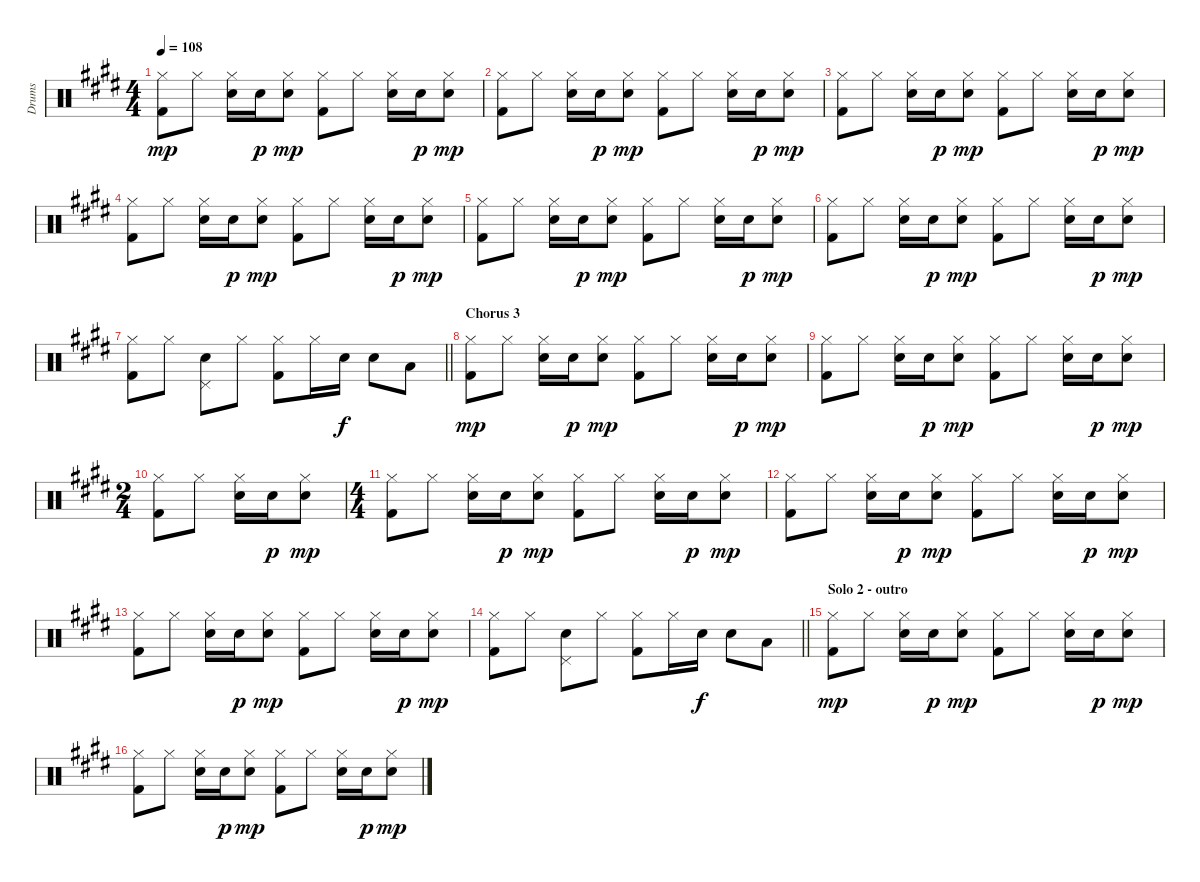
\track ("Drums" "Drums") {instrument percussion bank 7}
\staff {score}
\articulation defaults
\ts (4 4)
\tempo 108
\clef neutral
\ks e
("Hi-Hat (closed)" "Kick (hit) 2").8{dy mp} "Hi-Hat (closed)".8 ("Electric Snare (hit)" "Hi-Hat (closed)").16 "Electric Snare (hit)".16{dy p} ("Electric Snare (hit)" "Hi-Hat (closed)").8{dy mp} ("Hi-Hat (closed)" "Kick (hit) 2").8 "Hi-Hat (closed)".8 ("Electric Snare (hit)" "Hi-Hat (closed)").16 "Electric Snare (hit)".16{dy p} ("Electric Snare (hit)" "Hi-Hat (closed)").8{dy mp} |
("Hi-Hat (closed)" "Kick (hit) 2").8 "Hi-Hat (closed)".8 ("Electric Snare (hit)" "Hi-Hat (closed)").16 "Electric Snare (hit)".16{dy p} ("Electric Snare (hit)" "Hi-Hat (closed)").8{dy mp} ("Hi-Hat (closed)" "Kick (hit) 2").8 "Hi-Hat (closed)".8 ("Electric Snare (hit)" "Hi-Hat (closed)").16 "Electric Snare (hit)".16{dy p} ("Electric Snare (hit)" "Hi-Hat (closed)").8{dy mp} |
("Hi-Hat (closed)" "Kick (hit) 2").8 "Hi-Hat (closed)".8 ("Electric Snare (hit)" "Hi-Hat (closed)").16 "Electric Snare (hit)".16{dy p} ("Electric Snare (hit)" "Hi-Hat (closed)").8{dy mp} ("Hi-Hat (closed)" "Kick (hit) 2").8 "Hi-Hat (closed)".8 ("Electric Snare (hit)" "Hi-Hat (closed)").16 "Electric Snare (hit)".16{dy p} ("Electric Snare (hit)" "Hi-Hat (closed)").8{dy mp} |
("Hi-Hat (closed)" "Kick (hit) 2").8 "Hi-Hat (closed)".8 ("Electric Snare (hit)" "Hi-Hat (closed)").16 "Electric Snare (hit)".16{dy p} ("Electric Snare (hit)" "Hi-Hat (closed)").8{dy mp} ("Hi-Hat (closed)" "Kick (hit) 2").8 "Hi-Hat (closed)".8 ("Electric Snare (hit)" "Hi-Hat (closed)").16 "Electric Snare (hit)".16{dy p} ("Electric Snare (hit)" "Hi-Hat (closed)").8{dy mp} |
("Hi-Hat (closed)" "Kick (hit) 2").8 "Hi-Hat (closed)".8 ("Electric Snare (hit)" "Hi-Hat (closed)").16 "Electric Snare (hit)".16{dy p} ("Electric Snare (hit)" "Hi-Hat (closed)").8{dy mp} ("Hi-Hat (closed)" "Kick (hit) 2").8 "Hi-Hat (closed)".8 ("Electric Snare (hit)" "Hi-Hat (closed)").16 "Electric Snare (hit)".16{dy p} ("Electric Snare (hit)" "Hi-Hat (closed)").8{dy mp} |
("Hi-Hat (closed)" "Kick (hit) 2").8 "Hi-Hat (closed)".8 ("Electric Snare (hit)" "Hi-Hat (closed)").16 "Electric Snare (hit)".16{dy p} ("Electric Snare (hit)" "Hi-Hat (closed)").8{dy mp} ("Hi-Hat (closed)" "Kick (hit) 2").8 "Hi-Hat (closed)".8 ("Electric Snare (hit)" "Hi-Hat (closed)").16 "Electric Snare (hit)".16{dy p} ("Electric Snare (hit)" "Hi-Hat (closed)").8{dy mp} |
\barLineRight lightlight
("Hi-Hat (closed)" "Kick (hit) 2").8 "Hi-Hat (closed)".8 ("Electric Snare (hit)" "Pedal Hi-Hat (hit)").8 "Hi-Hat (closed)".8 ("Hi-Hat (closed)" "Kick (hit) 2").8 "Hi-Hat (closed)".16 "Electric Snare (hit)".16{dy f} "Electric Snare (hit)".8 "Low Tom (hit)".8 |
\section ("" "Chorus 3")
("Hi-Hat (closed)" "Kick (hit) 2").8{dy mp} "Hi-Hat (closed)".8 ("Electric Snare (hit)" "Hi-Hat (closed)").16 "Electric Snare (hit)".16{dy p} ("Electric Snare (hit)" "Hi-Hat (closed)").8{dy mp} ("Hi-Hat (closed)" "Kick (hit) 2").8 "Hi-Hat (closed)".8 ("Electric Snare (hit)" "Hi-Hat (closed)").16 "Electric Snare (hit)".16{dy p} ("Electric Snare (hit)" "Hi-Hat (closed)").8{dy mp} |
("Hi-Hat (closed)" "Kick (hit) 2").8 "Hi-Hat (closed)".8 ("Electric Snare (hit)" "Hi-Hat (closed)").16 "Electric Snare (hit)".16{dy p} ("Electric Snare (hit)" "Hi-Hat (closed)").8{dy mp} ("Hi-Hat (closed)" "Kick (hit) 2").8 "Hi-Hat (closed)".8 ("Electric Snare (hit)" "Hi-Hat (closed)").16 "Electric Snare (hit)".16{dy p} ("Electric Snare (hit)" "Hi-Hat (closed)").8{dy mp} |
\ts (2 4)
("Hi-Hat (closed)" "Kick (hit) 2").8 "Hi-Hat (closed)".8 ("Electric Snare (hit)" "Hi-Hat (closed)").16 "Electric Snare (hit)".16{dy p} ("Electric Snare (hit)" "Hi-Hat (closed)").8{dy mp} |
\ts (4 4)
("Hi-Hat (closed)" "Kick (hit) 2").8 "Hi-Hat (closed)".8 ("Electric Snare (hit)" "Hi-Hat (closed)").16 "Electric Snare (hit)".16{dy p} ("Electric Snare (hit)" "Hi-Hat (closed)").8{dy mp} ("Hi-Hat (closed)" "Kick (hit) 2").8 "Hi-Hat (closed)".8 ("Electric Snare (hit)" "Hi-Hat (closed)").16 "Electric Snare (hit)".16{dy p} ("Electric Snare (hit)" "Hi-Hat (closed)").8{dy mp} |
("Hi-Hat (closed)" "Kick (hit) 2").8 "Hi-Hat (closed)".8 ("Electric Snare (hit)" "Hi-Hat (closed)").16 "Electric Snare (hit)".16{dy p} ("Electric Snare (hit)" "Hi-Hat (closed)").8{dy mp} ("Hi-Hat (closed)" "Kick (hit) 2").8 "Hi-Hat (closed)".8 ("Electric Snare (hit)" "Hi-Hat (closed)").16 "Electric Snare (hit)".16{dy p} ("Electric Snare (hit)" "Hi-Hat (closed)").8{dy mp} |
("Hi-Hat (closed)" "Kick (hit) 2").8 "Hi-Hat (closed)".8 ("Electric Snare (hit)" "Hi-Hat (closed)").16 "Electric Snare (hit)".16{dy p} ("Electric Snare (hit)" "Hi-Hat (closed)").8{dy mp} ("Hi-Hat (closed)" "Kick (hit) 2").8 "Hi-Hat (closed)".8 ("Electric Snare (hit)" "Hi-Hat (closed)").16 "Electric Snare (hit)".16{dy p} ("Electric Snare (hit)" "Hi-Hat (closed)").8{dy mp} |
\barLineRight lightlight
("Hi-Hat (closed)" "Kick (hit) 2").8 "Hi-Hat (closed)".8 ("Electric Snare (hit)" "Pedal Hi-Hat (hit)").8 "Hi-Hat (closed)".8 ("Hi-Hat (closed)" "Kick (hit) 2").8 "Hi-Hat (closed)".16 "Electric Snare (hit)".16{dy f} "Electric Snare (hit)".8 "Low Tom (hit)".8 |
\section ("" "Solo 2 - outro")
("Hi-Hat (closed)" "Kick (hit) 2").8{dy mp} "Hi-Hat (closed)".8 ("Electric Snare (hit)" "Hi-Hat (closed)").16 "Electric Snare (hit)".16{dy p} ("Electric Snare (hit)" "Hi-Hat (closed)").8{dy mp} ("Hi-Hat (closed)" "Kick (hit) 2").8 "Hi-Hat (closed)".8 ("Electric Snare (hit)" "Hi-Hat (closed)").16 "Electric Snare (hit)".16{dy p} ("Electric Snare (hit)" "Hi-Hat (closed)").8{dy mp} |
("Hi-Hat (closed)" "Kick (hit) 2").8 "Hi-Hat (closed)".8 ("Electric Snare (hit)" "Hi-Hat (closed)").16 "Electric Snare (hit)".16{dy p} ("Electric Snare (hit)" "Hi-Hat (closed)").8{dy mp} ("Hi-Hat (closed)" "Kick (hit) 2").8 "Hi-Hat (closed)".8 ("Electric Snare (hit)" "Hi-Hat (closed)").16 "Electric Snare (hit)".16{dy p} ("Electric Snare (hit)" "Hi-Hat (closed)").8{dy mp}
